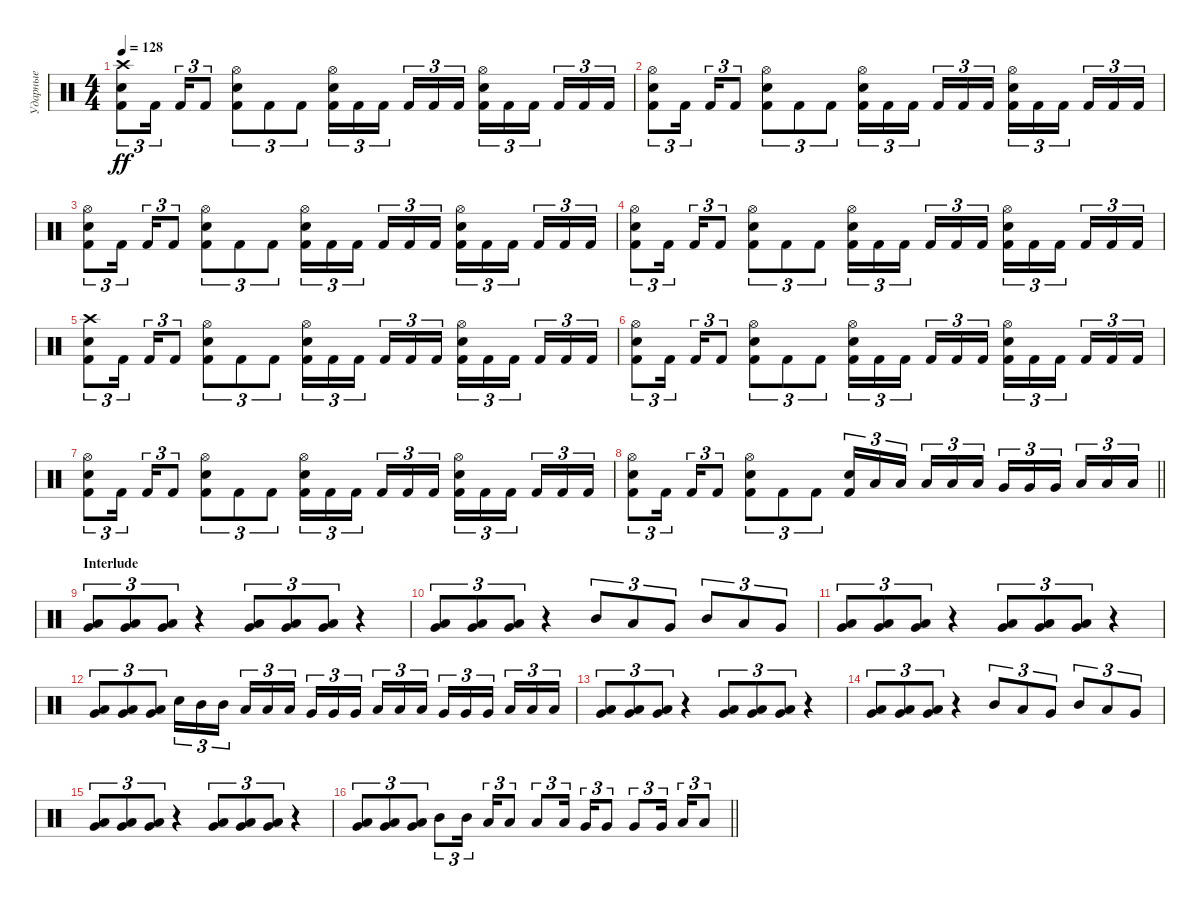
\track ("Ударные" "Ударные") {instrument percussion}
\staff {score}
\articulation defaults
\ts (4 4)
\tempo 128
\clef neutral
\ks c
("Crash high (hit)" "Electric Snare (hit)" "Kick (hit) 2").8{tu (3 2) dy ff} "Kick (hit) 2".16{tu (3 2) beam splitsecondary} "Kick (hit) 2".16{tu (3 2)} "Kick (hit) 2".8{tu (3 2)} ("Hi-Hat (open)" "Electric Snare (hit)" "Kick (hit) 2").8{tu (3 2)} "Kick (hit) 2".8{tu (3 2)} "Kick (hit) 2".8{tu (3 2)} ("Hi-Hat (open)" "Electric Snare (hit)" "Kick (hit) 2").16{tu (3 2)} "Kick (hit) 2".16{tu (3 2)} "Kick (hit) 2".16{tu (3 2) beam splitsecondary} "Kick (hit) 2".16{tu (3 2)} "Kick (hit) 2".16{tu (3 2)} "Kick (hit) 2".16{tu (3 2)} ("Hi-Hat (open)" "Electric Snare (hit)" "Kick (hit) 2").16{tu (3 2)} "Kick (hit) 2".16{tu (3 2)} "Kick (hit) 2".16{tu (3 2) beam splitsecondary} "Kick (hit) 2".16{tu (3 2)} "Kick (hit) 2".16{tu (3 2)} "Kick (hit) 2".16{tu (3 2)} |
("Hi-Hat (open)" "Electric Snare (hit)" "Kick (hit) 2").8{tu (3 2)} "Kick (hit) 2".16{tu (3 2) beam splitsecondary} "Kick (hit) 2".16{tu (3 2)} "Kick (hit) 2".8{tu (3 2)} ("Hi-Hat (open)" "Electric Snare (hit)" "Kick (hit) 2").8{tu (3 2)} "Kick (hit) 2".8{tu (3 2)} "Kick (hit) 2".8{tu (3 2)} ("Hi-Hat (open)" "Electric Snare (hit)" "Kick (hit) 2").16{tu (3 2)} "Kick (hit) 2".16{tu (3 2)} "Kick (hit) 2".16{tu (3 2) beam splitsecondary} "Kick (hit) 2".16{tu (3 2)} "Kick (hit) 2".16{tu (3 2)} "Kick (hit) 2".16{tu (3 2)} ("Hi-Hat (open)" "Electric Snare (hit)" "Kick (hit) 2").16{tu (3 2)} "Kick (hit) 2".16{tu (3 2)} "Kick (hit) 2".16{tu (3 2) beam splitsecondary} "Kick (hit) 2".16{tu (3 2)} "Kick (hit) 2".16{tu (3 2)} "Kick (hit) 2".16{tu (3 2)} |
("Hi-Hat (open)" "Electric Snare (hit)" "Kick (hit) 2").8{tu (3 2)} "Kick (hit) 2".16{tu (3 2) beam splitsecondary} "Kick (hit) 2".16{tu (3 2)} "Kick (hit) 2".8{tu (3 2)} ("Hi-Hat (open)" "Electric Snare (hit)" "Kick (hit) 2").8{tu (3 2)} "Kick (hit) 2".8{tu (3 2)} "Kick (hit) 2".8{tu (3 2)} ("Hi-Hat (open)" "Electric Snare (hit)" "Kick (hit) 2").16{tu (3 2)} "Kick (hit) 2".16{tu (3 2)} "Kick (hit) 2".16{tu (3 2) beam splitsecondary} "Kick (hit) 2".16{tu (3 2)} "Kick (hit) 2".16{tu (3 2)} "Kick (hit) 2".16{tu (3 2)} ("Hi-Hat (open)" "Electric Snare (hit)" "Kick (hit) 2").16{tu (3 2)} "Kick (hit) 2".16{tu (3 2)} "Kick (hit) 2".16{tu (3 2) beam splitsecondary} "Kick (hit) 2".16{tu (3 2)} "Kick (hit) 2".16{tu (3 2)} "Kick (hit) 2".16{tu (3 2)} |
("Hi-Hat (open)" "Electric Snare (hit)" "Kick (hit) 2").8{tu (3 2)} "Kick (hit) 2".16{tu (3 2) beam splitsecondary} "Kick (hit) 2".16{tu (3 2)} "Kick (hit) 2".8{tu (3 2)} ("Hi-Hat (open)" "Electric Snare (hit)" "Kick (hit) 2").8{tu (3 2)} "Kick (hit) 2".8{tu (3 2)} "Kick (hit) 2".8{tu (3 2)} ("Hi-Hat (open)" "Electric Snare (hit)" "Kick (hit) 2").16{tu (3 2)} "Kick (hit) 2".16{tu (3 2)} "Kick (hit) 2".16{tu (3 2) beam splitsecondary} "Kick (hit) 2".16{tu (3 2)} "Kick (hit) 2".16{tu (3 2)} "Kick (hit) 2".16{tu (3 2)} ("Hi-Hat (open)" "Electric Snare (hit)" "Kick (hit) 2").16{tu (3 2)} "Kick (hit) 2".16{tu (3 2)} "Kick (hit) 2".16{tu (3 2) beam splitsecondary} "Kick (hit) 2".16{tu (3 2)} "Kick (hit) 2".16{tu (3 2)} "Kick (hit) 2".16{tu (3 2)} |
("Crash high (hit)" "Electric Snare (hit)" "Kick (hit) 2").8{tu (3 2)} "Kick (hit) 2".16{tu (3 2) beam splitsecondary} "Kick (hit) 2".16{tu (3 2)} "Kick (hit) 2".8{tu (3 2)} ("Hi-Hat (open)" "Electric Snare (hit)" "Kick (hit) 2").8{tu (3 2)} "Kick (hit) 2".8{tu (3 2)} "Kick (hit) 2".8{tu (3 2)} ("Hi-Hat (open)" "Electric Snare (hit)" "Kick (hit) 2").16{tu (3 2)} "Kick (hit) 2".16{tu (3 2)} "Kick (hit) 2".16{tu (3 2) beam splitsecondary} "Kick (hit) 2".16{tu (3 2)} "Kick (hit) 2".16{tu (3 2)} "Kick (hit) 2".16{tu (3 2)} ("Hi-Hat (open)" "Electric Snare (hit)" "Kick (hit) 2").16{tu (3 2)} "Kick (hit) 2".16{tu (3 2)} "Kick (hit) 2".16{tu (3 2) beam splitsecondary} "Kick (hit) 2".16{tu (3 2)} "Kick (hit) 2".16{tu (3 2)} "Kick (hit) 2".16{tu (3 2)} |
("Hi-Hat (open)" "Electric Snare (hit)" "Kick (hit) 2").8{tu (3 2)} "Kick (hit) 2".16{tu (3 2) beam splitsecondary} "Kick (hit) 2".16{tu (3 2)} "Kick (hit) 2".8{tu (3 2)} ("Hi-Hat (open)" "Electric Snare (hit)" "Kick (hit) 2").8{tu (3 2)} "Kick (hit) 2".8{tu (3 2)} "Kick (hit) 2".8{tu (3 2)} ("Hi-Hat (open)" "Electric Snare (hit)" "Kick (hit) 2").16{tu (3 2)} "Kick (hit) 2".16{tu (3 2)} "Kick (hit) 2".16{tu (3 2) beam splitsecondary} "Kick (hit) 2".16{tu (3 2)} "Kick (hit) 2".16{tu (3 2)} "Kick (hit) 2".16{tu (3 2)} ("Hi-Hat (open)" "Electric Snare (hit)" "Kick (hit) 2").16{tu (3 2)} "Kick (hit) 2".16{tu (3 2)} "Kick (hit) 2".16{tu (3 2) beam splitsecondary} "Kick (hit) 2".16{tu (3 2)} "Kick (hit) 2".16{tu (3 2)} "Kick (hit) 2".16{tu (3 2)} |
("Hi-Hat (open)" "Electric Snare (hit)" "Kick (hit) 2").8{tu (3 2)} "Kick (hit) 2".16{tu (3 2) beam splitsecondary} "Kick (hit) 2".16{tu (3 2)} "Kick (hit) 2".8{tu (3 2)} ("Hi-Hat (open)" "Electric Snare (hit)" "Kick (hit) 2").8{tu (3 2)} "Kick (hit) 2".8{tu (3 2)} "Kick (hit) 2".8{tu (3 2)} ("Hi-Hat (open)" "Electric Snare (hit)" "Kick (hit) 2").16{tu (3 2)} "Kick (hit) 2".16{tu (3 2)} "Kick (hit) 2".16{tu (3 2) beam splitsecondary} "Kick (hit) 2".16{tu (3 2)} "Kick (hit) 2".16{tu (3 2)} "Kick (hit) 2".16{tu (3 2)} ("Hi-Hat (open)" "Electric Snare (hit)" "Kick (hit) 2").16{tu (3 2)} "Kick (hit) 2".16{tu (3 2)} "Kick (hit) 2".16{tu (3 2) beam splitsecondary} "Kick (hit) 2".16{tu (3 2)} "Kick (hit) 2".16{tu (3 2)} "Kick (hit) 2".16{tu (3 2)} |
\barLineRight lightlight
("Hi-Hat (open)" "Electric Snare (hit)" "Kick (hit) 2").8{tu (3 2)} "Kick (hit) 2".16{tu (3 2) beam splitsecondary} "Kick (hit) 2".16{tu (3 2)} "Kick (hit) 2".8{tu (3 2)} ("Hi-Hat (open)" "Electric Snare (hit)" "Kick (hit) 2").8{tu (3 2)} "Kick (hit) 2".8{tu (3 2)} "Kick (hit) 2".8{tu (3 2)} ("Electric Snare (hit)" "Kick (hit) 2").16{tu (3 2)} "Low Tom (hit)".16{tu (3 2)} "Low Tom (hit)".16{tu (3 2) beam splitsecondary} "Low Tom (hit)".16{tu (3 2)} "Low Tom (hit)".16{tu (3 2)} "Low Tom (hit)".16{tu (3 2)} "Very Low Tom (hit)".16{tu (3 2)} "Very Low Tom (hit)".16{tu (3 2)} "Very Low Tom (hit)".16{tu (3 2) beam splitsecondary} "Low Floor Tom (hit)".16{tu (3 2)} "Low Floor Tom (hit)".16{tu (3 2)} "Low Floor Tom (hit)".16{tu (3 2)} |
\section ("" "Interlude")
("Very Low Tom (hit)" "Low Tom (hit)").8{tu (3 2)} ("Very Low Tom (hit)" "Low Tom (hit)").8{tu (3 2)} ("Very Low Tom (hit)" "Low Tom (hit)").8{tu (3 2)} r.4 ("Very Low Tom (hit)" "Low Tom (hit)").8{tu (3 2)} ("Very Low Tom (hit)" "Low Tom (hit)").8{tu (3 2)} ("Very Low Tom (hit)" "Low Tom (hit)").8{tu (3 2)} r.4 |
("Very Low Tom (hit)" "Low Tom (hit)").8{tu (3 2)} ("Very Low Tom (hit)" "Low Tom (hit)").8{tu (3 2)} ("Very Low Tom (hit)" "Low Tom (hit)").8{tu (3 2)} r.4 "Mid Tom (hit)".8{tu (3 2)} "Low Tom (hit)".8{tu (3 2)} "Very Low Tom (hit)".8{tu (3 2)} "Mid Tom (hit)".8{tu (3 2)} "Low Tom (hit)".8{tu (3 2)} "Very Low Tom (hit)".8{tu (3 2)} |
("Very Low Tom (hit)" "Low Tom (hit)").8{tu (3 2)} ("Very Low Tom (hit)" "Low Tom (hit)").8{tu (3 2)} ("Very Low Tom (hit)" "Low Tom (hit)").8{tu (3 2)} r.4 ("Very Low Tom (hit)" "Low Tom (hit)").8{tu (3 2)} ("Very Low Tom (hit)" "Low Tom (hit)").8{tu (3 2)} ("Very Low Tom (hit)" "Low Tom (hit)").8{tu (3 2)} r.4 |
("Very Low Tom (hit)" "Low Tom (hit)").8{tu (3 2)} ("Very Low Tom (hit)" "Low Tom (hit)").8{tu (3 2)} ("Very Low Tom (hit)" "Low Tom (hit)").8{tu (3 2)} "Electric Snare (hit)".16{tu (3 2)} "Mid Tom (hit)".16{tu (3 2)} "Mid Tom (hit)".16{tu (3 2) beam splitsecondary} "Low Tom (hit)".16{tu (3 2)} "Low Tom (hit)".16{tu (3 2)} "Low Tom (hit)".16{tu (3 2)} "Very Low Tom (hit)".16{tu (3 2)} "Very Low Tom (hit)".16{tu (3 2)} "Very Low Tom (hit)".16{tu (3 2) beam splitsecondary} "Low Tom (hit)".16{tu (3 2)} "Low Tom (hit)".16{tu (3 2)} "Low Tom (hit)".16{tu (3 2)} "Very Low Tom (hit)".16{tu (3 2)} "Very Low Tom (hit)".16{tu (3 2)} "Very Low Tom (hit)".16{tu (3 2) beam splitsecondary} "Low Floor Tom (hit)".16{tu (3 2)} "Low Floor Tom (hit)".16{tu (3 2)} "Low Floor Tom (hit)".16{tu (3 2)} |
("Very Low Tom (hit)" "Low Tom (hit)").8{tu (3 2)} ("Very Low Tom (hit)" "Low Tom (hit)").8{tu (3 2)} ("Very Low Tom (hit)" "Low Tom (hit)").8{tu (3 2)} r.4 ("Very Low Tom (hit)" "Low Tom (hit)").8{tu (3 2)} ("Very Low Tom (hit)" "Low Tom (hit)").8{tu (3 2)} ("Very Low Tom (hit)" "Low Tom (hit)").8{tu (3 2)} r.4 |
("Very Low Tom (hit)" "Low Tom (hit)").8{tu (3 2)} ("Very Low Tom (hit)" "Low Tom (hit)").8{tu (3 2)} ("Very Low Tom (hit)" "Low Tom (hit)").8{tu (3 2)} r.4 "Mid Tom (hit)".8{tu (3 2)} "Low Tom (hit)".8{tu (3 2)} "Very Low Tom (hit)".8{tu (3 2)} "Mid Tom (hit)".8{tu (3 2)} "Low Tom (hit)".8{tu (3 2)} "Very Low Tom (hit)".8{tu (3 2)} |
("Very Low Tom (hit)" "Low Tom (hit)").8{tu (3 2)} ("Very Low Tom (hit)" "Low Tom (hit)").8{tu (3 2)} ("Very Low Tom (hit)" "Low Tom (hit)").8{tu (3 2)} r.4 ("Very Low Tom (hit)" "Low Tom (hit)").8{tu (3 2)} ("Very Low Tom (hit)" "Low Tom (hit)").8{tu (3 2)} ("Very Low Tom (hit)" "Low Tom (hit)").8{tu (3 2)} r.4 |
\barLineRight lightlight
("Very Low Tom (hit)" "Low Tom (hit)").8{tu (3 2)} ("Very Low Tom (hit)" "Low Tom (hit)").8{tu (3 2)} ("Very Low Tom (hit)" "Low Tom (hit)").8{tu (3 2)} "Mid Tom (hit)".8{tu (3 2)} "Mid Tom (hit)".16{tu (3 2) beam splitsecondary} "Low Tom (hit)".16{tu (3 2)} "Low Tom (hit)".8{tu (3 2)} "Low Tom (hit)".8{tu (3 2)} "Low Tom (hit)".16{tu (3 2) beam splitsecondary} "Very Low Tom (hit)".16{tu (3 2)} "Very Low Tom (hit)".8{tu (3 2)} "Very Low Tom (hit)".8{tu (3 2)} "Very Low Tom (hit)".16{tu (3 2) beam splitsecondary} "Low Floor Tom (hit)".16{tu (3 2)} "Low Floor Tom (hit)".8{tu (3 2)}
